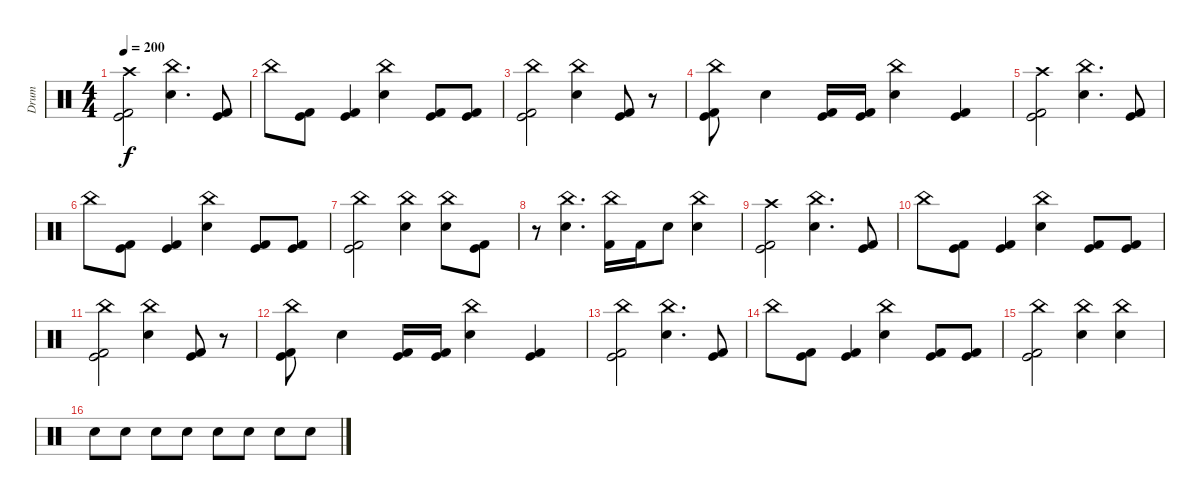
\track ("Drum" "Drum") {instrument percussion}
\staff {score}
\articulation defaults
\ts (4 4)
\tempo 200
\clef neutral
\ks c
("Crash high (hit)" "Kick (hit)" "Kick (hit) 2").2{dy f} ("China (hit)" "Electric Snare (hit)").4{d} ("Kick (hit)" "Kick (hit) 2").8 |
"China (hit)".8 ("Kick (hit)" "Kick (hit) 2").8 ("Kick (hit)" "Kick (hit) 2").4 ("China (hit)" "Electric Snare (hit)").4 ("Kick (hit)" "Kick (hit) 2").8 ("Kick (hit)" "Kick (hit) 2").8 |
("China (hit)" "Kick (hit)" "Kick (hit) 2").2 ("China (hit)" "Electric Snare (hit)").4 ("Kick (hit)" "Kick (hit) 2").8 r.8 |
("China (hit)" "Kick (hit)" "Kick (hit) 2").8 "Electric Snare (hit)".4 ("Kick (hit)" "Kick (hit) 2").16 ("Kick (hit)" "Kick (hit) 2").16 ("China (hit)" "Electric Snare (hit)").4 ("Kick (hit)" "Kick (hit) 2").4 |
("Crash high (hit)" "Kick (hit)" "Kick (hit) 2").2 ("China (hit)" "Electric Snare (hit)").4{d} ("Kick (hit)" "Kick (hit) 2").8 |
"China (hit)".8 ("Kick (hit)" "Kick (hit) 2").8 ("Kick (hit)" "Kick (hit) 2").4 ("China (hit)" "Electric Snare (hit)").4 ("Kick (hit)" "Kick (hit) 2").8 ("Kick (hit)" "Kick (hit) 2").8 |
("China (hit)" "Kick (hit)" "Kick (hit) 2").2 ("China (hit)" "Electric Snare (hit)").4 ("China (hit)" "Electric Snare (hit)").8 ("Kick (hit)" "Kick (hit) 2").8 |
r.8 ("China (hit)" "Electric Snare (hit)").4{d} ("China (hit)" "Kick (hit) 2").16 "Kick (hit) 2".16 "Electric Snare (hit)".8 ("China (hit)" "Electric Snare (hit)").4 |
("Crash high (hit)" "Kick (hit)" "Kick (hit) 2").2 ("China (hit)" "Electric Snare (hit)").4{d} ("Kick (hit)" "Kick (hit) 2").8 |
"China (hit)".8 ("Kick (hit)" "Kick (hit) 2").8 ("Kick (hit)" "Kick (hit) 2").4 ("China (hit)" "Electric Snare (hit)").4 ("Kick (hit)" "Kick (hit) 2").8 ("Kick (hit)" "Kick (hit) 2").8 |
("China (hit)" "Kick (hit)" "Kick (hit) 2").2 ("China (hit)" "Electric Snare (hit)").4 ("Kick (hit)" "Kick (hit) 2").8 r.8 |
("China (hit)" "Kick (hit)" "Kick (hit) 2").8 "Electric Snare (hit)".4 ("Kick (hit)" "Kick (hit) 2").16 ("Kick (hit)" "Kick (hit) 2").16 ("China (hit)" "Electric Snare (hit)").4 ("Kick (hit)" "Kick (hit) 2").4 |
("China (hit)" "Kick (hit)" "Kick (hit) 2").2 ("China (hit)" "Electric Snare (hit)").4{d} ("Kick (hit)" "Kick (hit) 2").8 |
"China (hit)".8 ("Kick (hit)" "Kick (hit) 2").8 ("Kick (hit)" "Kick (hit) 2").4 ("China (hit)" "Electric Snare (hit)").4 ("Kick (hit)" "Kick (hit) 2").8 ("Kick (hit)" "Kick (hit) 2").8 |
("China (hit)" "Kick (hit)" "Kick (hit) 2").2 ("China (hit)" "Electric Snare (hit)").4 ("China (hit)" "Electric Snare (hit)").4 |
"Electric Snare (hit)".8 "Electric Snare (hit)".8 "Electric Snare (hit)".8 "Electric Snare (hit)".8 "Electric Snare (hit)".8 "Electric Snare (hit)".8 "Electric Snare (hit)".8 "Electric Snare (hit)".8
